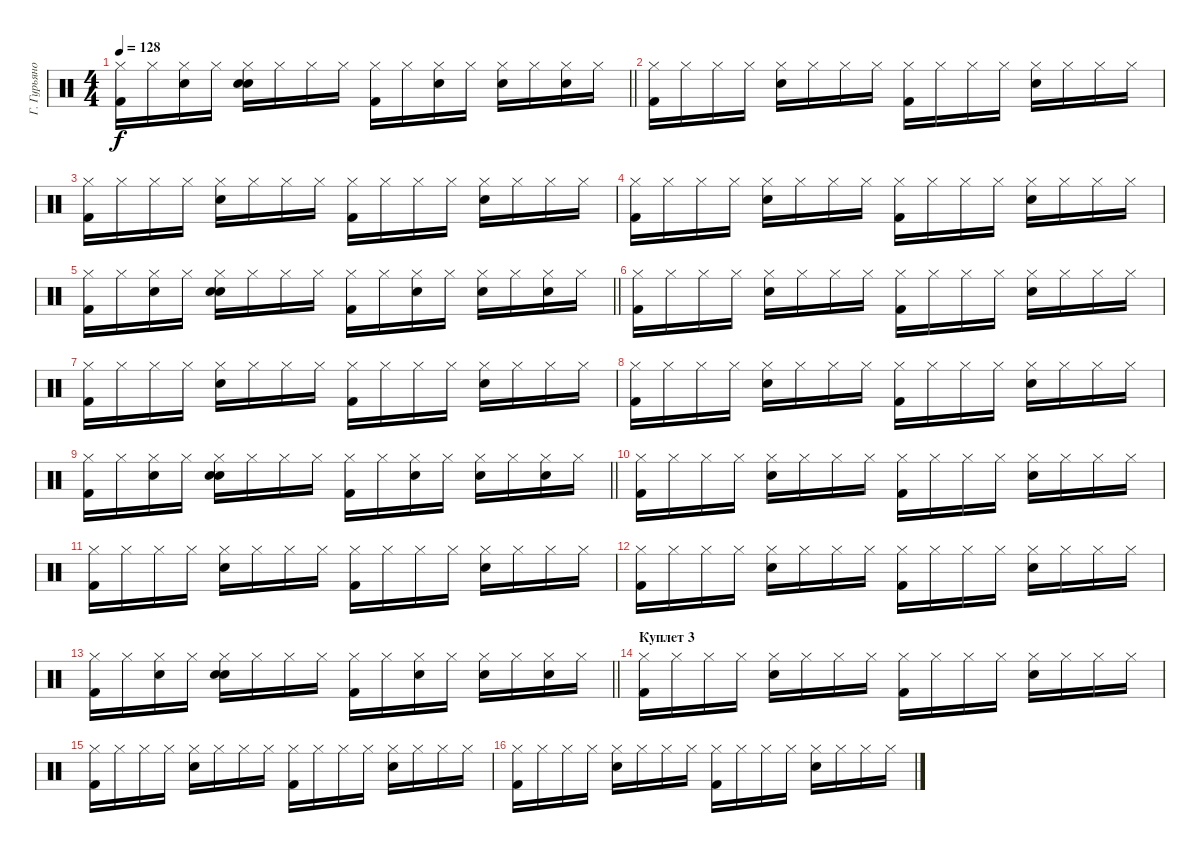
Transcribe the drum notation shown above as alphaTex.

\track ("Г. Гурьянов" "Г. Гурьяно") {instrument percussion}
\staff
\articulation defaults
\ts (4 4)
\tempo 128
\clef neutral
\barLineRight lightlight
\ks c
("Hi-Hat (closed)" "Kick (hit) 2").16{dy f} "Hi-Hat (closed)".16 ("Hi-Hat (closed)" "Hand Clap (hit)").16 "Hi-Hat (closed)".16 ("Hi-Hat (closed)" "Snare (hit) 2" "Hand Clap (hit)").16 "Hi-Hat (closed)".16 "Hi-Hat (closed)".16 "Hi-Hat (closed)".16 ("Hi-Hat (closed)" "Kick (hit) 2").16 "Hi-Hat (closed)".16 ("Hi-Hat (closed)" "Snare (hit) 2").16 "Hi-Hat (closed)".16 ("Hi-Hat (closed)" "Snare (hit) 2").16 "Hi-Hat (closed)".16 ("Hi-Hat (closed)" "Snare (hit) 2").16 "Hi-Hat (closed)".16 |
("Hi-Hat (closed)" "Kick (hit) 2").16 "Hi-Hat (closed)".16 "Hi-Hat (closed)".16 "Hi-Hat (closed)".16 ("Hi-Hat (closed)" "Snare (hit) 2").16 "Hi-Hat (closed)".16 "Hi-Hat (closed)".16 "Hi-Hat (closed)".16 ("Hi-Hat (closed)" "Kick (hit) 2").16 "Hi-Hat (closed)".16 "Hi-Hat (closed)".16 "Hi-Hat (closed)".16 ("Hi-Hat (closed)" "Snare (hit) 2").16 "Hi-Hat (closed)".16 "Hi-Hat (closed)".16 "Hi-Hat (closed)".16 |
("Hi-Hat (closed)" "Kick (hit) 2").16 "Hi-Hat (closed)".16 "Hi-Hat (closed)".16 "Hi-Hat (closed)".16 ("Hi-Hat (closed)" "Snare (hit) 2").16 "Hi-Hat (closed)".16 "Hi-Hat (closed)".16 "Hi-Hat (closed)".16 ("Hi-Hat (closed)" "Kick (hit) 2").16 "Hi-Hat (closed)".16 "Hi-Hat (closed)".16 "Hi-Hat (closed)".16 ("Hi-Hat (closed)" "Snare (hit) 2").16 "Hi-Hat (closed)".16 "Hi-Hat (closed)".16 "Hi-Hat (closed)".16 |
("Hi-Hat (closed)" "Kick (hit) 2").16 "Hi-Hat (closed)".16 "Hi-Hat (closed)".16 "Hi-Hat (closed)".16 ("Hi-Hat (closed)" "Snare (hit) 2").16 "Hi-Hat (closed)".16 "Hi-Hat (closed)".16 "Hi-Hat (closed)".16 ("Hi-Hat (closed)" "Kick (hit) 2").16 "Hi-Hat (closed)".16 "Hi-Hat (closed)".16 "Hi-Hat (closed)".16 ("Hi-Hat (closed)" "Snare (hit) 2").16 "Hi-Hat (closed)".16 "Hi-Hat (closed)".16 "Hi-Hat (closed)".16 |
\barLineRight lightlight
("Hi-Hat (closed)" "Kick (hit) 2").16 "Hi-Hat (closed)".16 ("Hi-Hat (closed)" "Hand Clap (hit)").16 "Hi-Hat (closed)".16 ("Hi-Hat (closed)" "Snare (hit) 2" "Hand Clap (hit)").16 "Hi-Hat (closed)".16 "Hi-Hat (closed)".16 "Hi-Hat (closed)".16 ("Hi-Hat (closed)" "Kick (hit) 2").16 "Hi-Hat (closed)".16 ("Hi-Hat (closed)" "Snare (hit) 2").16 "Hi-Hat (closed)".16 ("Hi-Hat (closed)" "Snare (hit) 2").16 "Hi-Hat (closed)".16 ("Hi-Hat (closed)" "Snare (hit) 2").16 "Hi-Hat (closed)".16 |
("Hi-Hat (closed)" "Kick (hit) 2").16 "Hi-Hat (closed)".16 "Hi-Hat (closed)".16 "Hi-Hat (closed)".16 ("Hi-Hat (closed)" "Snare (hit) 2").16 "Hi-Hat (closed)".16 "Hi-Hat (closed)".16 "Hi-Hat (closed)".16 ("Hi-Hat (closed)" "Kick (hit) 2").16 "Hi-Hat (closed)".16 "Hi-Hat (closed)".16 "Hi-Hat (closed)".16 ("Hi-Hat (closed)" "Snare (hit) 2").16 "Hi-Hat (closed)".16 "Hi-Hat (closed)".16 "Hi-Hat (closed)".16 |
("Hi-Hat (closed)" "Kick (hit) 2").16 "Hi-Hat (closed)".16 "Hi-Hat (closed)".16 "Hi-Hat (closed)".16 ("Hi-Hat (closed)" "Snare (hit) 2").16 "Hi-Hat (closed)".16 "Hi-Hat (closed)".16 "Hi-Hat (closed)".16 ("Hi-Hat (closed)" "Kick (hit) 2").16 "Hi-Hat (closed)".16 "Hi-Hat (closed)".16 "Hi-Hat (closed)".16 ("Hi-Hat (closed)" "Snare (hit) 2").16 "Hi-Hat (closed)".16 "Hi-Hat (closed)".16 "Hi-Hat (closed)".16 |
("Hi-Hat (closed)" "Kick (hit) 2").16 "Hi-Hat (closed)".16 "Hi-Hat (closed)".16 "Hi-Hat (closed)".16 ("Hi-Hat (closed)" "Snare (hit) 2").16 "Hi-Hat (closed)".16 "Hi-Hat (closed)".16 "Hi-Hat (closed)".16 ("Hi-Hat (closed)" "Kick (hit) 2").16 "Hi-Hat (closed)".16 "Hi-Hat (closed)".16 "Hi-Hat (closed)".16 ("Hi-Hat (closed)" "Snare (hit) 2").16 "Hi-Hat (closed)".16 "Hi-Hat (closed)".16 "Hi-Hat (closed)".16 |
\barLineRight lightlight
("Hi-Hat (closed)" "Kick (hit) 2").16 "Hi-Hat (closed)".16 ("Hi-Hat (closed)" "Hand Clap (hit)").16 "Hi-Hat (closed)".16 ("Hi-Hat (closed)" "Snare (hit) 2" "Hand Clap (hit)").16 "Hi-Hat (closed)".16 "Hi-Hat (closed)".16 "Hi-Hat (closed)".16 ("Hi-Hat (closed)" "Kick (hit) 2").16 "Hi-Hat (closed)".16 ("Hi-Hat (closed)" "Snare (hit) 2").16 "Hi-Hat (closed)".16 ("Hi-Hat (closed)" "Snare (hit) 2").16 "Hi-Hat (closed)".16 ("Hi-Hat (closed)" "Snare (hit) 2").16 "Hi-Hat (closed)".16 |
("Hi-Hat (closed)" "Kick (hit) 2").16 "Hi-Hat (closed)".16 "Hi-Hat (closed)".16 "Hi-Hat (closed)".16 ("Hi-Hat (closed)" "Snare (hit) 2").16 "Hi-Hat (closed)".16 "Hi-Hat (closed)".16 "Hi-Hat (closed)".16 ("Hi-Hat (closed)" "Kick (hit) 2").16 "Hi-Hat (closed)".16 "Hi-Hat (closed)".16 "Hi-Hat (closed)".16 ("Hi-Hat (closed)" "Snare (hit) 2").16 "Hi-Hat (closed)".16 "Hi-Hat (closed)".16 "Hi-Hat (closed)".16 |
("Hi-Hat (closed)" "Kick (hit) 2").16 "Hi-Hat (closed)".16 "Hi-Hat (closed)".16 "Hi-Hat (closed)".16 ("Hi-Hat (closed)" "Snare (hit) 2").16 "Hi-Hat (closed)".16 "Hi-Hat (closed)".16 "Hi-Hat (closed)".16 ("Hi-Hat (closed)" "Kick (hit) 2").16 "Hi-Hat (closed)".16 "Hi-Hat (closed)".16 "Hi-Hat (closed)".16 ("Hi-Hat (closed)" "Snare (hit) 2").16 "Hi-Hat (closed)".16 "Hi-Hat (closed)".16 "Hi-Hat (closed)".16 |
("Hi-Hat (closed)" "Kick (hit) 2").16 "Hi-Hat (closed)".16 "Hi-Hat (closed)".16 "Hi-Hat (closed)".16 ("Hi-Hat (closed)" "Snare (hit) 2").16 "Hi-Hat (closed)".16 "Hi-Hat (closed)".16 "Hi-Hat (closed)".16 ("Hi-Hat (closed)" "Kick (hit) 2").16 "Hi-Hat (closed)".16 "Hi-Hat (closed)".16 "Hi-Hat (closed)".16 ("Hi-Hat (closed)" "Snare (hit) 2").16 "Hi-Hat (closed)".16 "Hi-Hat (closed)".16 "Hi-Hat (closed)".16 |
\barLineRight lightlight
("Hi-Hat (closed)" "Kick (hit) 2").16 "Hi-Hat (closed)".16 ("Hi-Hat (closed)" "Hand Clap (hit)").16 "Hi-Hat (closed)".16 ("Hi-Hat (closed)" "Snare (hit) 2" "Hand Clap (hit)").16 "Hi-Hat (closed)".16 "Hi-Hat (closed)".16 "Hi-Hat (closed)".16 ("Hi-Hat (closed)" "Kick (hit) 2").16 "Hi-Hat (closed)".16 ("Hi-Hat (closed)" "Snare (hit) 2").16 "Hi-Hat (closed)".16 ("Hi-Hat (closed)" "Snare (hit) 2").16 "Hi-Hat (closed)".16 ("Hi-Hat (closed)" "Snare (hit) 2").16 "Hi-Hat (closed)".16 |
\section ("" "Куплет 3")
("Hi-Hat (closed)" "Kick (hit) 2").16 "Hi-Hat (closed)".16 "Hi-Hat (closed)".16 "Hi-Hat (closed)".16 ("Hi-Hat (closed)" "Snare (hit) 2").16 "Hi-Hat (closed)".16 "Hi-Hat (closed)".16 "Hi-Hat (closed)".16 ("Hi-Hat (closed)" "Kick (hit) 2").16 "Hi-Hat (closed)".16 "Hi-Hat (closed)".16 "Hi-Hat (closed)".16 ("Hi-Hat (closed)" "Snare (hit) 2").16 "Hi-Hat (closed)".16 "Hi-Hat (closed)".16 "Hi-Hat (closed)".16 |
("Hi-Hat (closed)" "Kick (hit) 2").16 "Hi-Hat (closed)".16 "Hi-Hat (closed)".16 "Hi-Hat (closed)".16 ("Hi-Hat (closed)" "Snare (hit) 2").16 "Hi-Hat (closed)".16 "Hi-Hat (closed)".16 "Hi-Hat (closed)".16 ("Hi-Hat (closed)" "Kick (hit) 2").16 "Hi-Hat (closed)".16 "Hi-Hat (closed)".16 "Hi-Hat (closed)".16 ("Hi-Hat (closed)" "Snare (hit) 2").16 "Hi-Hat (closed)".16 "Hi-Hat (closed)".16 "Hi-Hat (closed)".16 |
("Hi-Hat (closed)" "Kick (hit) 2").16 "Hi-Hat (closed)".16 "Hi-Hat (closed)".16 "Hi-Hat (closed)".16 ("Hi-Hat (closed)" "Snare (hit) 2").16 "Hi-Hat (closed)".16 "Hi-Hat (closed)".16 "Hi-Hat (closed)".16 ("Hi-Hat (closed)" "Kick (hit) 2").16 "Hi-Hat (closed)".16 "Hi-Hat (closed)".16 "Hi-Hat (closed)".16 ("Hi-Hat (closed)" "Snare (hit) 2").16 "Hi-Hat (closed)".16 "Hi-Hat (closed)".16 "Hi-Hat (closed)".16
